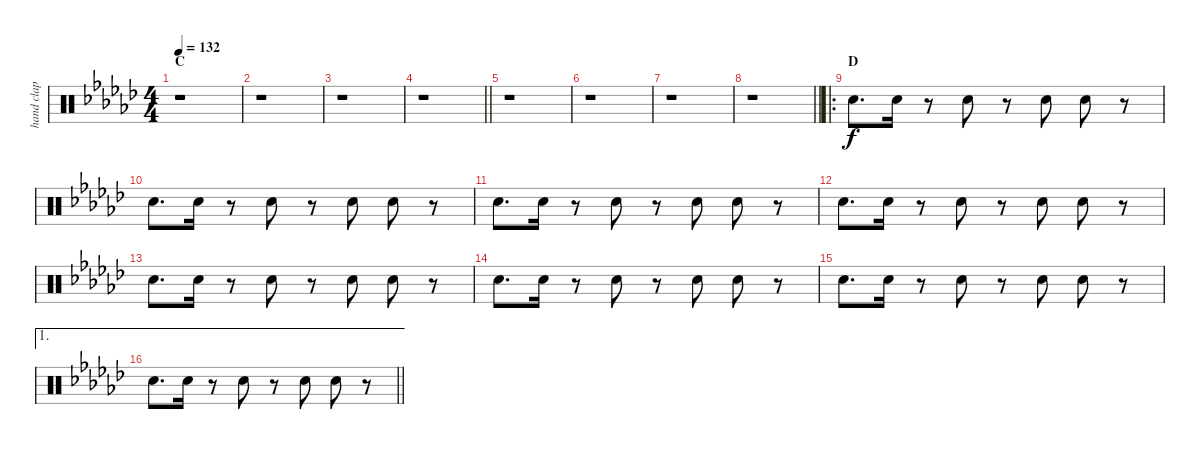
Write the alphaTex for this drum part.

\track ("hand clap" "hand clap") {instrument percussion}
\staff {score}
\articulation defaults
\ts (4 4)
\section ("" "C")
\tempo 132
\clef neutral
\ks gb
r.1{dy f} |
r.1 |
r.1 |
\barLineRight lightlight
r.1 |
r.1 |
r.1 |
r.1 |
\barLineRight lightlight
r.1 |
\ro
\section ("" "D")
"Hand Clap (hit)".8{d} "Hand Clap (hit)".16 r.8 "Hand Clap (hit)".8 r.8 "Hand Clap (hit)".8 "Hand Clap (hit)".8 r.8 |
"Hand Clap (hit)".8{d} "Hand Clap (hit)".16 r.8 "Hand Clap (hit)".8 r.8 "Hand Clap (hit)".8 "Hand Clap (hit)".8 r.8 |
"Hand Clap (hit)".8{d} "Hand Clap (hit)".16 r.8 "Hand Clap (hit)".8 r.8 "Hand Clap (hit)".8 "Hand Clap (hit)".8 r.8 |
"Hand Clap (hit)".8{d} "Hand Clap (hit)".16 r.8 "Hand Clap (hit)".8 r.8 "Hand Clap (hit)".8 "Hand Clap (hit)".8 r.8 |
"Hand Clap (hit)".8{d} "Hand Clap (hit)".16 r.8 "Hand Clap (hit)".8 r.8 "Hand Clap (hit)".8 "Hand Clap (hit)".8 r.8 |
"Hand Clap (hit)".8{d} "Hand Clap (hit)".16 r.8 "Hand Clap (hit)".8 r.8 "Hand Clap (hit)".8 "Hand Clap (hit)".8 r.8 |
"Hand Clap (hit)".8{d} "Hand Clap (hit)".16 r.8 "Hand Clap (hit)".8 r.8 "Hand Clap (hit)".8 "Hand Clap (hit)".8 r.8 |
\ae 1
\barLineRight lightlight "Hand Clap (hit)".8{d} "Hand Clap (hit)".16
r.8 "Hand Clap (hit)".8 r.8 "Hand Clap (hit)".8 "Hand Clap (hit)".8 r.8
